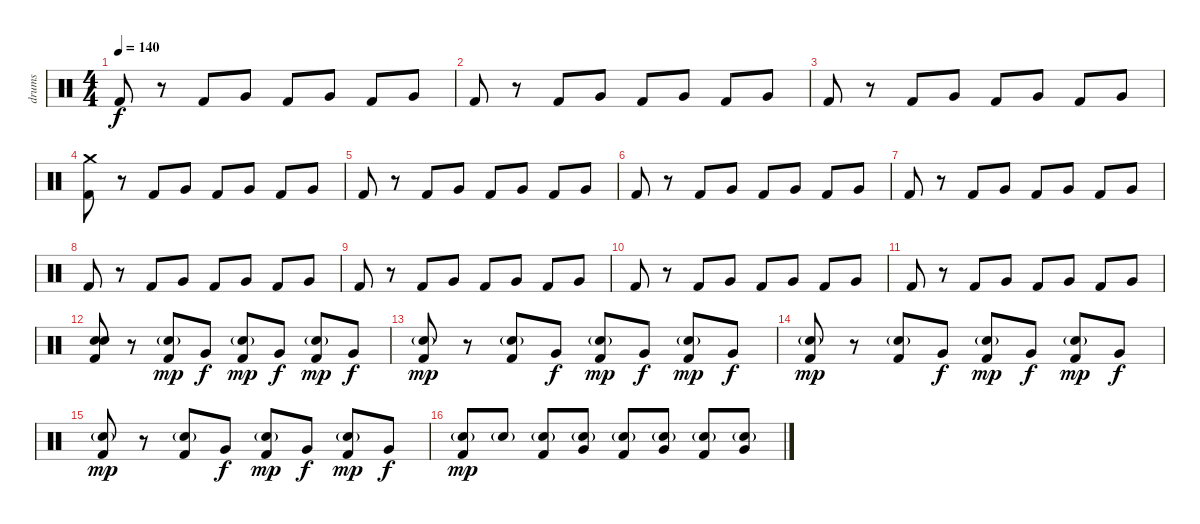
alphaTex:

\track ("drums" "drums") {instrument percussion}
\staff {score}
\articulation defaults
\ts (4 4)
\tempo 140
\clef neutral
\ks c "Kick (hit) 2".8{dy f}
r.8 "Kick (hit) 2".8 "Very Low Tom (hit)".8 "Kick (hit) 2".8 "Very Low Tom (hit)".8 "Kick (hit) 2".8 "Very Low Tom (hit)".8 |
"Kick (hit) 2".8 r.8 "Kick (hit) 2".8 "Very Low Tom (hit)".8 "Kick (hit) 2".8 "Very Low Tom (hit)".8 "Kick (hit) 2".8 "Very Low Tom (hit)".8 |
"Kick (hit) 2".8 r.8 "Kick (hit) 2".8 "Very Low Tom (hit)".8 "Kick (hit) 2".8 "Very Low Tom (hit)".8 "Kick (hit) 2".8 "Very Low Tom (hit)".8 |
("Crash medium (hit)" "Kick (hit) 2").8 r.8 "Kick (hit) 2".8 "Very Low Tom (hit)".8 "Kick (hit) 2".8 "Very Low Tom (hit)".8 "Kick (hit) 2".8 "Very Low Tom (hit)".8 |
"Kick (hit) 2".8 r.8 "Kick (hit) 2".8 "Very Low Tom (hit)".8 "Kick (hit) 2".8 "Very Low Tom (hit)".8 "Kick (hit) 2".8 "Very Low Tom (hit)".8 |
"Kick (hit) 2".8 r.8 "Kick (hit) 2".8 "Very Low Tom (hit)".8 "Kick (hit) 2".8 "Very Low Tom (hit)".8 "Kick (hit) 2".8 "Very Low Tom (hit)".8 |
"Kick (hit) 2".8 r.8 "Kick (hit) 2".8 "Very Low Tom (hit)".8 "Kick (hit) 2".8 "Very Low Tom (hit)".8 "Kick (hit) 2".8 "Very Low Tom (hit)".8 |
"Kick (hit) 2".8 r.8 "Kick (hit) 2".8 "Very Low Tom (hit)".8 "Kick (hit) 2".8 "Very Low Tom (hit)".8 "Kick (hit) 2".8 "Very Low Tom (hit)".8 |
"Kick (hit) 2".8 r.8 "Kick (hit) 2".8 "Very Low Tom (hit)".8 "Kick (hit) 2".8 "Very Low Tom (hit)".8 "Kick (hit) 2".8 "Very Low Tom (hit)".8 |
"Kick (hit) 2".8 r.8 "Kick (hit) 2".8 "Very Low Tom (hit)".8 "Kick (hit) 2".8 "Very Low Tom (hit)".8 "Kick (hit) 2".8 "Very Low Tom (hit)".8 |
"Kick (hit) 2".8 r.8 "Kick (hit) 2".8 "Very Low Tom (hit)".8 "Kick (hit) 2".8 "Very Low Tom (hit)".8 "Kick (hit) 2".8 "Very Low Tom (hit)".8 |
("Snare (hit) 2" "Snare (hit) 2" "Kick (hit) 2").8 r.8 ("Snare (hit) 2"{g} "Kick (hit) 2").8{dy mp} "Very Low Tom (hit)".8{dy f} ("Snare (hit) 2"{g} "Kick (hit) 2").8{dy mp} "Very Low Tom (hit)".8{dy f} ("Snare (hit) 2"{g} "Kick (hit) 2").8{dy mp} "Very Low Tom (hit)".8{dy f} |
("Snare (hit) 2"{g} "Kick (hit) 2").8{dy mp} r.8 ("Snare (hit) 2"{g} "Kick (hit) 2").8 "Very Low Tom (hit)".8{dy f} ("Snare (hit) 2"{g} "Kick (hit) 2").8{dy mp} "Very Low Tom (hit)".8{dy f} ("Snare (hit) 2"{g} "Kick (hit) 2").8{dy mp} "Very Low Tom (hit)".8{dy f} |
("Snare (hit) 2"{g} "Kick (hit) 2").8{dy mp} r.8 ("Snare (hit) 2"{g} "Kick (hit) 2").8 "Very Low Tom (hit)".8{dy f} ("Snare (hit) 2"{g} "Kick (hit) 2").8{dy mp} "Very Low Tom (hit)".8{dy f} ("Snare (hit) 2"{g} "Kick (hit) 2").8{dy mp} "Very Low Tom (hit)".8{dy f} |
("Snare (hit) 2"{g} "Kick (hit) 2").8{dy mp} r.8 ("Snare (hit) 2"{g} "Kick (hit) 2").8 "Very Low Tom (hit)".8{dy f} ("Snare (hit) 2"{g} "Kick (hit) 2").8{dy mp} "Very Low Tom (hit)".8{dy f} ("Snare (hit) 2"{g} "Kick (hit) 2").8{dy mp} "Very Low Tom (hit)".8{dy f} |
("Snare (hit) 2"{g} "Kick (hit) 2").8{dy mp} "Snare (hit) 2"{g}.8 ("Snare (hit) 2"{g} "Kick (hit) 2").8 ("Snare (hit) 2"{g} "Very Low Tom (hit)").8 ("Snare (hit) 2"{g} "Kick (hit) 2").8 ("Snare (hit) 2"{g} "Very Low Tom (hit)").8 ("Snare (hit) 2"{g} "Kick (hit) 2").8 ("Snare (hit) 2"{g} "Very Low Tom (hit)").8
